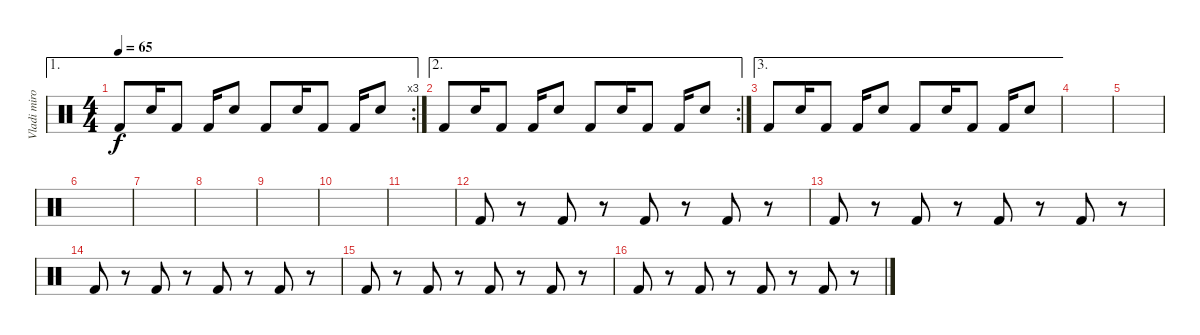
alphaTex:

\track ("Vladi miro" "Vladi miro") {solo instrument percussion}
\staff {score}
\articulation defaults
\ae 1
\rc 3
\ts (4 4)
\tempo 65
\clef neutral
\ks c "Kick (hit) 2".8{dy f} "Electric Snare (hit)".16 "Kick (hit) 2".8 "Kick (hit) 2".16 "Electric Snare (hit)".8 "Kick (hit) 2".8 "Electric Snare (hit)".16 "Kick (hit) 2".8 "Kick (hit) 2".16 "Electric Snare (hit)".8
|
\ae 2
\rc 2 "Kick (hit) 2".8 "Electric Snare (hit)".16 "Kick (hit) 2".8 "Kick (hit) 2".16 "Electric Snare (hit)".8 "Kick (hit) 2".8 "Electric Snare (hit)".16 "Kick (hit) 2".8 "Kick (hit) 2".16 "Electric Snare (hit)".8
|
\ae 3 "Kick (hit) 2".8 "Electric Snare (hit)".16 "Kick (hit) 2".8 "Kick (hit) 2".16 "Electric Snare (hit)".8 "Kick (hit) 2".8 "Electric Snare (hit)".16 "Kick (hit) 2".8 "Kick (hit) 2".16 "Electric Snare (hit)".8
|
|
|
|
|
|
|
|
|
"Kick (hit) 2".8 r.8 "Kick (hit) 2".8 r.8 "Kick (hit) 2".8 r.8 "Kick (hit) 2".8 r.8 |
"Kick (hit) 2".8 r.8 "Kick (hit) 2".8 r.8 "Kick (hit) 2".8 r.8 "Kick (hit) 2".8 r.8 |
"Kick (hit) 2".8 r.8 "Kick (hit) 2".8 r.8 "Kick (hit) 2".8 r.8 "Kick (hit) 2".8 r.8 |
"Kick (hit) 2".8 r.8 "Kick (hit) 2".8 r.8 "Kick (hit) 2".8 r.8 "Kick (hit) 2".8 r.8 |
"Kick (hit) 2".8 r.8 "Kick (hit) 2".8 r.8 "Kick (hit) 2".8 r.8 "Kick (hit) 2".8 r.8
